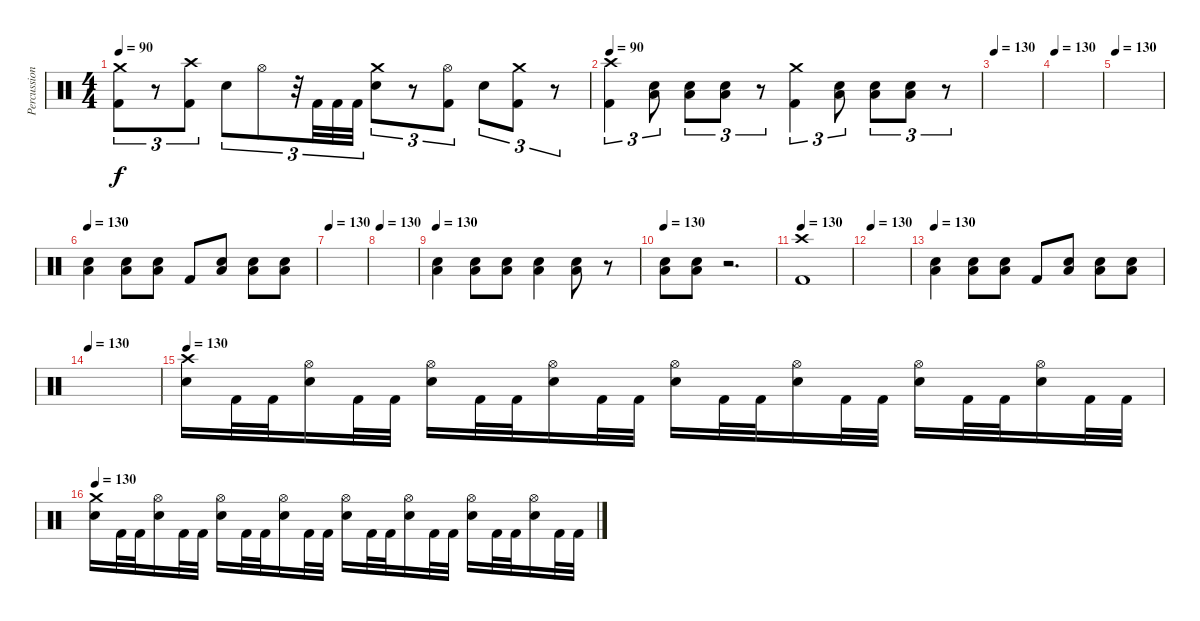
\track ("Percussion" "Percussion") {instrument percussion}
\staff {score}
\articulation defaults
\ts (4 4)
\tempo 90
\clef neutral
\ks c
("Crash medium (hit)" "Kick (hit) 2").8{tu (3 2) dy f} r.8{tu (3 2)} ("Crash high (hit)" "Kick (hit) 2").8{tu (3 2)} "Electric Snare (hit)".8{tu (3 2)} "Hi-Hat (open)".8{tu (3 2)} r.32{tu (3 2)} "Kick (hit) 2".32{tu (3 2)} "Kick (hit) 2".32{tu (3 2)} "Kick (hit) 2".32{tu (3 2)} ("Crash medium (hit)" "Electric Snare (hit)").8{tu (3 2)} r.8{tu (3 2)} ("Hi-Hat (open)" "Kick (hit) 2").8{tu (3 2)} "Electric Snare (hit)".8{tu (3 2)} ("Crash medium (hit)" "Kick (hit) 2").8{tu (3 2)} r.8{tu (3 2)} |
\tempo 90
("Crash high (hit)" "Kick (hit) 2").4{tu (3 2)} ("Low Tom (hit)" "Electric Snare (hit)").8{tu (3 2)} ("Low Tom (hit)" "Electric Snare (hit)").8{tu (3 2)} ("Low Tom (hit)" "Electric Snare (hit)").8{tu (3 2)} r.8{tu (3 2)} ("Crash medium (hit)" "Kick (hit) 2").4{tu (3 2)} ("Low Tom (hit)" "Electric Snare (hit)").8{tu (3 2)} ("Low Tom (hit)" "Electric Snare (hit)").8{tu (3 2)} ("Low Tom (hit)" "Electric Snare (hit)").8{tu (3 2)} r.8{tu (3 2)} |
\tempo 130
|
\tempo 130
|
\tempo 130
|
\tempo 130
("Low Tom (hit)" "Electric Snare (hit)").4 ("Low Tom (hit)" "Electric Snare (hit)").8 ("Low Tom (hit)" "Electric Snare (hit)").8 "Kick (hit) 2".8 ("Low Tom (hit)" "Electric Snare (hit)").8 ("Low Tom (hit)" "Electric Snare (hit)").8 ("Low Tom (hit)" "Electric Snare (hit)").8 |
\tempo 130
|
\tempo 130
|
\tempo 130
("Low Tom (hit)" "Electric Snare (hit)").4 ("Low Tom (hit)" "Electric Snare (hit)").8 ("Low Tom (hit)" "Electric Snare (hit)").8 ("Low Tom (hit)" "Electric Snare (hit)").4 ("Low Tom (hit)" "Electric Snare (hit)").8 r.8 |
\tempo 130
("Low Tom (hit)" "Electric Snare (hit)").8 ("Low Tom (hit)" "Electric Snare (hit)").8 r.2{d} |
\tempo 130
("Crash high (hit)" "Kick (hit) 2").1 |
\tempo 130
|
\tempo 130
("Low Tom (hit)" "Electric Snare (hit)").4 ("Low Tom (hit)" "Electric Snare (hit)").8 ("Low Tom (hit)" "Electric Snare (hit)").8 "Kick (hit) 2".8 ("Low Tom (hit)" "Electric Snare (hit)").8 ("Low Tom (hit)" "Electric Snare (hit)").8 ("Low Tom (hit)" "Electric Snare (hit)").8 |
\tempo 130
|
\tempo 130
("Crash high (hit)" "Electric Snare (hit)").16 "Kick (hit) 2".32 "Kick (hit) 2".32 ("Hi-Hat (open)" "Electric Snare (hit)").16 "Kick (hit) 2".32 "Kick (hit) 2".32 ("Hi-Hat (open)" "Electric Snare (hit)").16 "Kick (hit) 2".32 "Kick (hit) 2".32 ("Hi-Hat (open)" "Electric Snare (hit)").16 "Kick (hit) 2".32 "Kick (hit) 2".32 ("Hi-Hat (open)" "Electric Snare (hit)").16 "Kick (hit) 2".32 "Kick (hit) 2".32 ("Hi-Hat (open)" "Electric Snare (hit)").16 "Kick (hit) 2".32 "Kick (hit) 2".32 ("Hi-Hat (open)" "Electric Snare (hit)").16 "Kick (hit) 2".32 "Kick (hit) 2".32 ("Hi-Hat (open)" "Electric Snare (hit)").16 "Kick (hit) 2".32 "Kick (hit) 2".32 |
\tempo 130
("Crash medium (hit)" "Electric Snare (hit)").16 "Kick (hit) 2".32 "Kick (hit) 2".32 ("Hi-Hat (open)" "Electric Snare (hit)").16 "Kick (hit) 2".32 "Kick (hit) 2".32 ("Hi-Hat (open)" "Electric Snare (hit)").16 "Kick (hit) 2".32 "Kick (hit) 2".32 ("Hi-Hat (open)" "Electric Snare (hit)").16 "Kick (hit) 2".32 "Kick (hit) 2".32 ("Hi-Hat (open)" "Electric Snare (hit)").16 "Kick (hit) 2".32 "Kick (hit) 2".32 ("Hi-Hat (open)" "Electric Snare (hit)").16 "Kick (hit) 2".32 "Kick (hit) 2".32 ("Hi-Hat (open)" "Electric Snare (hit)").16 "Kick (hit) 2".32 "Kick (hit) 2".32 ("Hi-Hat (open)" "Electric Snare (hit)").16 "Kick (hit) 2".32 "Kick (hit) 2".32
